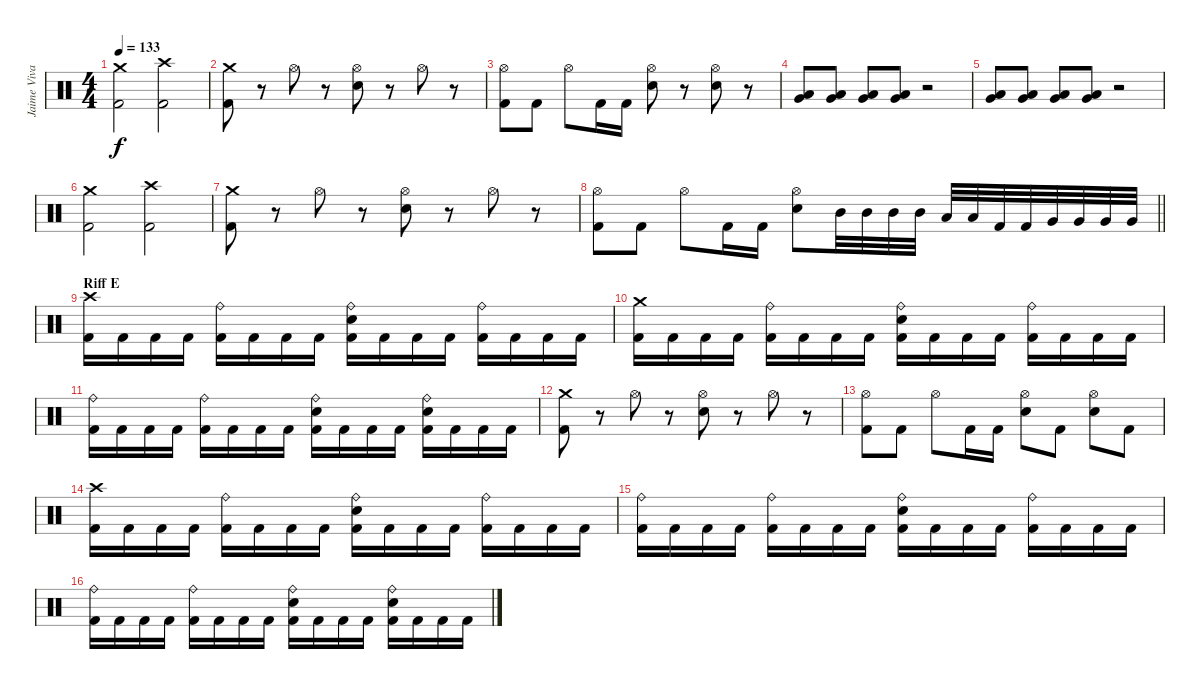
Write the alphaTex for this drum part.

\track ("Jaime Vivar" "Jaime Viva") {instrument percussion}
\staff {score}
\articulation defaults
\ts (4 4)
\tempo 133
\clef neutral
\ks c
("Crash medium (hit)" "Kick (hit) 2").2{dy f} ("Crash high (hit)" "Kick (hit) 2").2 |
("Crash medium (hit)" "Kick (hit) 2").8 r.8 "Hi-Hat (open)".8 r.8 ("Hi-Hat (open)" "Snare (hit) 2").8 r.8 "Hi-Hat (open)".8 r.8 |
("Hi-Hat (open)" "Kick (hit) 2").8 "Kick (hit) 2".8 "Hi-Hat (open)".8 "Kick (hit) 2".16 "Kick (hit) 2".16 ("Hi-Hat (open)" "Snare (hit) 2").8 r.8 ("Hi-Hat (open)" "Snare (hit) 2").8 r.8 |
("Very Low Tom (hit)" "Low Floor Tom (hit)").8 ("Very Low Tom (hit)" "Low Floor Tom (hit)").8 ("Very Low Tom (hit)" "Low Floor Tom (hit)").8 ("Very Low Tom (hit)" "Low Floor Tom (hit)").8 r.2 |
("Very Low Tom (hit)" "Low Floor Tom (hit)").8 ("Very Low Tom (hit)" "Low Floor Tom (hit)").8 ("Very Low Tom (hit)" "Low Floor Tom (hit)").8 ("Very Low Tom (hit)" "Low Floor Tom (hit)").8 r.2 |
("Crash medium (hit)" "Kick (hit) 2").2 ("Crash high (hit)" "Kick (hit) 2").2 |
("Crash medium (hit)" "Kick (hit) 2").8 r.8 "Hi-Hat (open)".8 r.8 ("Hi-Hat (open)" "Snare (hit) 2").8 r.8 "Hi-Hat (open)".8 r.8 |
\barLineRight lightlight
("Hi-Hat (open)" "Kick (hit) 2").8 "Kick (hit) 2".8 "Hi-Hat (open)".8 "Kick (hit) 2".16 "Kick (hit) 2".16 ("Hi-Hat (open)" "Snare (hit) 2").8 "Mid Tom (hit)".32 "Mid Tom (hit)".32 "Mid Tom (hit)".32 "Mid Tom (hit)".32 "Low Tom (hit)".32 "Low Tom (hit)".32 "Kick (hit) 2".32 "Kick (hit) 2".32 "Very Low Tom (hit)".32 "Very Low Tom (hit)".32 "Very Low Tom (hit)".32 "Very Low Tom (hit)".32 |
\section ("" "Riff E")
("Crash high (hit)" "Kick (hit) 2").16 "Kick (hit) 2".16 "Kick (hit) 2".16 "Kick (hit) 2".16 ("Ride (bell)" "Kick (hit) 2").16 "Kick (hit) 2".16 "Kick (hit) 2".16 "Kick (hit) 2".16 ("Ride (bell)" "Snare (hit) 2" "Kick (hit) 2").16 "Kick (hit) 2".16 "Kick (hit) 2".16 "Kick (hit) 2".16 ("Ride (bell)" "Kick (hit) 2").16 "Kick (hit) 2".16 "Kick (hit) 2".16 "Kick (hit) 2".16 |
("Crash medium (hit)" "Kick (hit) 2").16 "Kick (hit) 2".16 "Kick (hit) 2".16 "Kick (hit) 2".16 ("Ride (bell)" "Kick (hit) 2").16 "Kick (hit) 2".16 "Kick (hit) 2".16 "Kick (hit) 2".16 ("Ride (bell)" "Snare (hit) 2" "Kick (hit) 2").16 "Kick (hit) 2".16 "Kick (hit) 2".16 "Kick (hit) 2".16 ("Ride (bell)" "Kick (hit) 2").16 "Kick (hit) 2".16 "Kick (hit) 2".16 "Kick (hit) 2".16 |
("Ride (bell)" "Kick (hit) 2").16 "Kick (hit) 2".16 "Kick (hit) 2".16 "Kick (hit) 2".16 ("Ride (bell)" "Kick (hit) 2").16 "Kick (hit) 2".16 "Kick (hit) 2".16 "Kick (hit) 2".16 ("Ride (bell)" "Snare (hit) 2" "Kick (hit) 2").16 "Kick (hit) 2".16 "Kick (hit) 2".16 "Kick (hit) 2".16 ("Ride (bell)" "Snare (hit) 2" "Kick (hit) 2").16 "Kick (hit) 2".16 "Kick (hit) 2".16 "Kick (hit) 2".16 |
("Crash medium (hit)" "Kick (hit) 2").8 r.8 "Hi-Hat (open)".8 r.8 ("Hi-Hat (open)" "Snare (hit) 2").8 r.8 "Hi-Hat (open)".8 r.8 |
("Hi-Hat (open)" "Kick (hit) 2").8 "Kick (hit) 2".8 "Hi-Hat (open)".8 "Kick (hit) 2".16 "Kick (hit) 2".16 ("Hi-Hat (open)" "Snare (hit) 2").8 "Kick (hit) 2".8 ("Hi-Hat (open)" "Snare (hit) 2").8 "Kick (hit) 2".8 |
("Crash high (hit)" "Kick (hit) 2").16 "Kick (hit) 2".16 "Kick (hit) 2".16 "Kick (hit) 2".16 ("Ride (bell)" "Kick (hit) 2").16 "Kick (hit) 2".16 "Kick (hit) 2".16 "Kick (hit) 2".16 ("Ride (bell)" "Snare (hit) 2" "Kick (hit) 2").16 "Kick (hit) 2".16 "Kick (hit) 2".16 "Kick (hit) 2".16 ("Ride (bell)" "Kick (hit) 2").16 "Kick (hit) 2".16 "Kick (hit) 2".16 "Kick (hit) 2".16 |
("Ride (bell)" "Kick (hit) 2").16 "Kick (hit) 2".16 "Kick (hit) 2".16 "Kick (hit) 2".16 ("Ride (bell)" "Kick (hit) 2").16 "Kick (hit) 2".16 "Kick (hit) 2".16 "Kick (hit) 2".16 ("Ride (bell)" "Snare (hit) 2" "Kick (hit) 2").16 "Kick (hit) 2".16 "Kick (hit) 2".16 "Kick (hit) 2".16 ("Ride (bell)" "Kick (hit) 2").16 "Kick (hit) 2".16 "Kick (hit) 2".16 "Kick (hit) 2".16 |
("Ride (bell)" "Kick (hit) 2").16 "Kick (hit) 2".16 "Kick (hit) 2".16 "Kick (hit) 2".16 ("Ride (bell)" "Kick (hit) 2").16 "Kick (hit) 2".16 "Kick (hit) 2".16 "Kick (hit) 2".16 ("Ride (bell)" "Snare (hit) 2" "Kick (hit) 2").16 "Kick (hit) 2".16 "Kick (hit) 2".16 "Kick (hit) 2".16 ("Ride (bell)" "Snare (hit) 2" "Kick (hit) 2").16 "Kick (hit) 2".16 "Kick (hit) 2".16 "Kick (hit) 2".16
